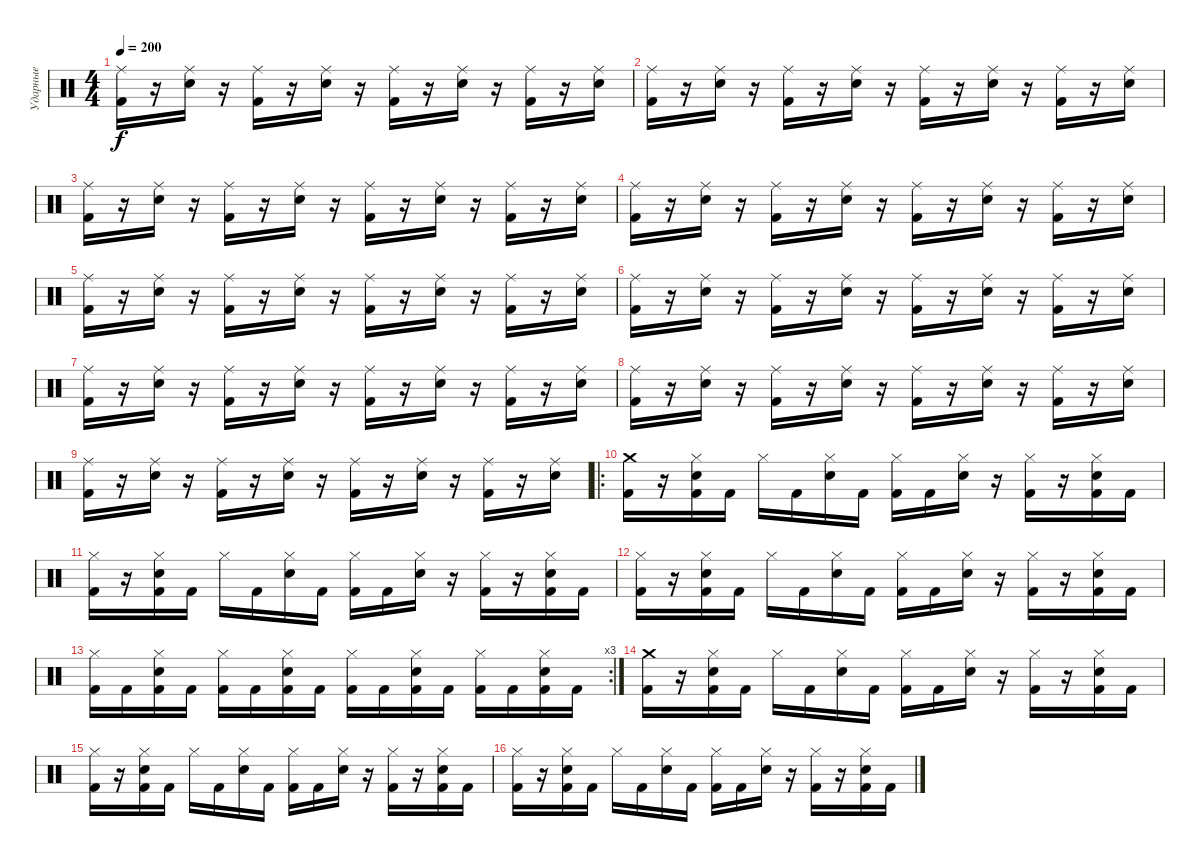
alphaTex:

\track ("Ударные" "Ударные") {instrument percussion}
\staff {score}
\articulation defaults
\ts (4 4)
\tempo 200
\clef neutral
\ks c
("Ride (middle)" "Kick (hit) 2").16{dy f} r.16 ("Ride (middle)" "Snare (hit) 2").16 r.16 ("Ride (middle)" "Kick (hit) 2").16 r.16 ("Ride (middle)" "Snare (hit) 2").16 r.16 ("Ride (middle)" "Kick (hit) 2").16 r.16 ("Ride (middle)" "Snare (hit) 2").16 r.16 ("Ride (middle)" "Kick (hit) 2").16 r.16 ("Ride (middle)" "Snare (hit) 2").16 |
("Ride (middle)" "Kick (hit) 2").16 r.16 ("Ride (middle)" "Snare (hit) 2").16 r.16 ("Ride (middle)" "Kick (hit) 2").16 r.16 ("Ride (middle)" "Snare (hit) 2").16 r.16 ("Ride (middle)" "Kick (hit) 2").16 r.16 ("Ride (middle)" "Snare (hit) 2").16 r.16 ("Ride (middle)" "Kick (hit) 2").16 r.16 ("Ride (middle)" "Snare (hit) 2").16 |
("Ride (middle)" "Kick (hit) 2").16 r.16 ("Ride (middle)" "Snare (hit) 2").16 r.16 ("Ride (middle)" "Kick (hit) 2").16 r.16 ("Ride (middle)" "Snare (hit) 2").16 r.16 ("Ride (middle)" "Kick (hit) 2").16 r.16 ("Ride (middle)" "Snare (hit) 2").16 r.16 ("Ride (middle)" "Kick (hit) 2").16 r.16 ("Ride (middle)" "Snare (hit) 2").16 |
("Ride (middle)" "Kick (hit) 2").16 r.16 ("Ride (middle)" "Snare (hit) 2").16 r.16 ("Ride (middle)" "Kick (hit) 2").16 r.16 ("Ride (middle)" "Snare (hit) 2").16 r.16 ("Ride (middle)" "Kick (hit) 2").16 r.16 ("Ride (middle)" "Snare (hit) 2").16 r.16 ("Ride (middle)" "Kick (hit) 2").16 r.16 ("Ride (middle)" "Snare (hit) 2").16 |
("Ride (middle)" "Kick (hit) 2").16 r.16 ("Ride (middle)" "Snare (hit) 2").16 r.16 ("Ride (middle)" "Kick (hit) 2").16 r.16 ("Ride (middle)" "Snare (hit) 2").16 r.16 ("Ride (middle)" "Kick (hit) 2").16 r.16 ("Ride (middle)" "Snare (hit) 2").16 r.16 ("Ride (middle)" "Kick (hit) 2").16 r.16 ("Ride (middle)" "Snare (hit) 2").16 |
("Ride (middle)" "Kick (hit) 2").16 r.16 ("Ride (middle)" "Snare (hit) 2").16 r.16 ("Ride (middle)" "Kick (hit) 2").16 r.16 ("Ride (middle)" "Snare (hit) 2").16 r.16 ("Ride (middle)" "Kick (hit) 2").16 r.16 ("Ride (middle)" "Snare (hit) 2").16 r.16 ("Ride (middle)" "Kick (hit) 2").16 r.16 ("Ride (middle)" "Snare (hit) 2").16 |
("Ride (middle)" "Kick (hit) 2").16 r.16 ("Ride (middle)" "Snare (hit) 2").16 r.16 ("Ride (middle)" "Kick (hit) 2").16 r.16 ("Ride (middle)" "Snare (hit) 2").16 r.16 ("Ride (middle)" "Kick (hit) 2").16 r.16 ("Ride (middle)" "Snare (hit) 2").16 r.16 ("Ride (middle)" "Kick (hit) 2").16 r.16 ("Ride (middle)" "Snare (hit) 2").16 |
("Ride (middle)" "Kick (hit) 2").16 r.16 ("Ride (middle)" "Snare (hit) 2").16 r.16 ("Ride (middle)" "Kick (hit) 2").16 r.16 ("Ride (middle)" "Snare (hit) 2").16 r.16 ("Ride (middle)" "Kick (hit) 2").16 r.16 ("Ride (middle)" "Snare (hit) 2").16 r.16 ("Ride (middle)" "Kick (hit) 2").16 r.16 ("Ride (middle)" "Snare (hit) 2").16 |
("Ride (middle)" "Kick (hit) 2").16 r.16 ("Ride (middle)" "Snare (hit) 2").16 r.16 ("Ride (middle)" "Kick (hit) 2").16 r.16 ("Ride (middle)" "Snare (hit) 2").16 r.16 ("Ride (middle)" "Kick (hit) 2").16 r.16 ("Ride (middle)" "Snare (hit) 2").16 r.16 ("Ride (middle)" "Kick (hit) 2").16 r.16 ("Ride (middle)" "Snare (hit) 2").16 |
\ro
("Crash medium (hit)" "Kick (hit) 2").16 r.16 ("Hi-Hat (closed)" "Snare (hit) 2" "Kick (hit) 2").16 "Kick (hit) 2".16 "Hi-Hat (closed)".16 "Kick (hit) 2".16 ("Hi-Hat (closed)" "Snare (hit) 2").16 "Kick (hit) 2".16 ("Hi-Hat (closed)" "Kick (hit) 2").16 "Kick (hit) 2".16 ("Hi-Hat (closed)" "Snare (hit) 2").16 r.16 ("Hi-Hat (closed)" "Kick (hit) 2").16 r.16 ("Hi-Hat (closed)" "Snare (hit) 2" "Kick (hit) 2").16 "Kick (hit) 2".16 |
("Hi-Hat (closed)" "Kick (hit) 2").16 r.16 ("Hi-Hat (closed)" "Snare (hit) 2" "Kick (hit) 2").16 "Kick (hit) 2".16 "Hi-Hat (closed)".16 "Kick (hit) 2".16 ("Hi-Hat (closed)" "Snare (hit) 2").16 "Kick (hit) 2".16 ("Hi-Hat (closed)" "Kick (hit) 2").16 "Kick (hit) 2".16 ("Hi-Hat (closed)" "Snare (hit) 2").16 r.16 ("Hi-Hat (closed)" "Kick (hit) 2").16 r.16 ("Hi-Hat (closed)" "Snare (hit) 2" "Kick (hit) 2").16 "Kick (hit) 2".16 |
("Hi-Hat (closed)" "Kick (hit) 2").16 r.16 ("Hi-Hat (closed)" "Snare (hit) 2" "Kick (hit) 2").16 "Kick (hit) 2".16 "Hi-Hat (closed)".16 "Kick (hit) 2".16 ("Hi-Hat (closed)" "Snare (hit) 2").16 "Kick (hit) 2".16 ("Hi-Hat (closed)" "Kick (hit) 2").16 "Kick (hit) 2".16 ("Hi-Hat (closed)" "Snare (hit) 2").16 r.16 ("Hi-Hat (closed)" "Kick (hit) 2").16 r.16 ("Hi-Hat (closed)" "Snare (hit) 2" "Kick (hit) 2").16 "Kick (hit) 2".16 |
\rc 3
("Hi-Hat (closed)" "Kick (hit) 2").16 "Kick (hit) 2".16 ("Hi-Hat (closed)" "Snare (hit) 2" "Kick (hit) 2").16 "Kick (hit) 2".16 ("Hi-Hat (closed)" "Kick (hit) 2").16 "Kick (hit) 2".16 ("Hi-Hat (closed)" "Snare (hit) 2" "Kick (hit) 2").16 "Kick (hit) 2".16 ("Hi-Hat (closed)" "Kick (hit) 2").16 "Kick (hit) 2".16 ("Hi-Hat (closed)" "Snare (hit) 2" "Kick (hit) 2").16 "Kick (hit) 2".16 ("Hi-Hat (closed)" "Kick (hit) 2").16 "Kick (hit) 2".16 ("Hi-Hat (closed)" "Snare (hit) 2" "Kick (hit) 2").16 "Kick (hit) 2".16 |
("Crash medium (hit)" "Kick (hit) 2").16 r.16 ("Hi-Hat (closed)" "Snare (hit) 2" "Kick (hit) 2").16 "Kick (hit) 2".16 "Hi-Hat (closed)".16 "Kick (hit) 2".16 ("Hi-Hat (closed)" "Snare (hit) 2").16 "Kick (hit) 2".16 ("Hi-Hat (closed)" "Kick (hit) 2").16 "Kick (hit) 2".16 ("Hi-Hat (closed)" "Snare (hit) 2").16 r.16 ("Hi-Hat (closed)" "Kick (hit) 2").16 r.16 ("Hi-Hat (closed)" "Snare (hit) 2" "Kick (hit) 2").16 "Kick (hit) 2".16 |
("Hi-Hat (closed)" "Kick (hit) 2").16 r.16 ("Hi-Hat (closed)" "Snare (hit) 2" "Kick (hit) 2").16 "Kick (hit) 2".16 "Hi-Hat (closed)".16 "Kick (hit) 2".16 ("Hi-Hat (closed)" "Snare (hit) 2").16 "Kick (hit) 2".16 ("Hi-Hat (closed)" "Kick (hit) 2").16 "Kick (hit) 2".16 ("Hi-Hat (closed)" "Snare (hit) 2").16 r.16 ("Hi-Hat (closed)" "Kick (hit) 2").16 r.16 ("Hi-Hat (closed)" "Snare (hit) 2" "Kick (hit) 2").16 "Kick (hit) 2".16 |
("Hi-Hat (closed)" "Kick (hit) 2").16 r.16 ("Hi-Hat (closed)" "Snare (hit) 2" "Kick (hit) 2").16 "Kick (hit) 2".16 "Hi-Hat (closed)".16 "Kick (hit) 2".16 ("Hi-Hat (closed)" "Snare (hit) 2").16 "Kick (hit) 2".16 ("Hi-Hat (closed)" "Kick (hit) 2").16 "Kick (hit) 2".16 ("Hi-Hat (closed)" "Snare (hit) 2").16 r.16 ("Hi-Hat (closed)" "Kick (hit) 2").16 r.16 ("Hi-Hat (closed)" "Snare (hit) 2" "Kick (hit) 2").16 "Kick (hit) 2".16
